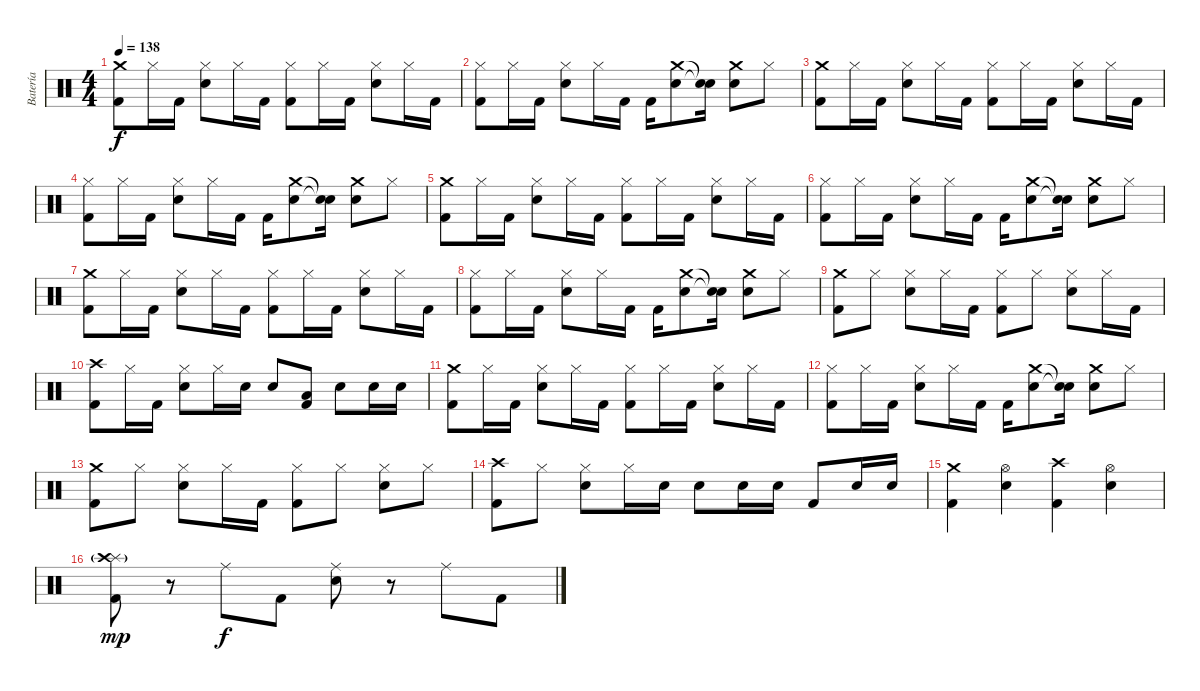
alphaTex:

\track ("Batería" "Batería") {instrument percussion}
\staff {score}
\articulation defaults
\ts (4 4)
\tempo 138
\clef neutral
\ks c
("Crash medium (hit)" "Kick (hit) 2").8{dy f} "Hi-Hat (closed)".16 "Kick (hit) 2".16 ("Hi-Hat (closed)" "Snare (hit) 2").8 "Hi-Hat (closed)".16 "Kick (hit) 2".16 ("Hi-Hat (closed)" "Kick (hit) 2").8 "Hi-Hat (closed)".16 "Kick (hit) 2".16 ("Hi-Hat (closed)" "Snare (hit) 2").8 "Hi-Hat (closed)".16 "Kick (hit) 2".16 |
("Hi-Hat (closed)" "Kick (hit) 2").8 "Hi-Hat (closed)".16 "Kick (hit) 2".16 ("Hi-Hat (closed)" "Snare (hit) 2").8 "Hi-Hat (closed)".16 "Kick (hit) 2".16 "Kick (hit) 2".16 ("Crash medium (hit)" "Snare (hit) 2").8 ("Snare (hit)"{t} "Snare (hit)"{t}).16 ("Crash medium (hit)" "Snare (hit) 2").8 "Hi-Hat (closed)".8 |
("Crash medium (hit)" "Kick (hit) 2").8 "Hi-Hat (closed)".16 "Kick (hit) 2".16 ("Hi-Hat (closed)" "Snare (hit) 2").8 "Hi-Hat (closed)".16 "Kick (hit) 2".16 ("Hi-Hat (closed)" "Kick (hit) 2").8 "Hi-Hat (closed)".16 "Kick (hit) 2".16 ("Hi-Hat (closed)" "Snare (hit) 2").8 "Hi-Hat (closed)".16 "Kick (hit) 2".16 |
("Hi-Hat (closed)" "Kick (hit) 2").8 "Hi-Hat (closed)".16 "Kick (hit) 2".16 ("Hi-Hat (closed)" "Snare (hit) 2").8 "Hi-Hat (closed)".16 "Kick (hit) 2".16 "Kick (hit) 2".16 ("Crash medium (hit)" "Snare (hit) 2").8 ("Snare (hit)"{t} "Snare (hit)"{t}).16 ("Crash medium (hit)" "Snare (hit) 2").8 "Hi-Hat (closed)".8 |
("Crash medium (hit)" "Kick (hit) 2").8 "Hi-Hat (closed)".16 "Kick (hit) 2".16 ("Hi-Hat (closed)" "Snare (hit) 2").8 "Hi-Hat (closed)".16 "Kick (hit) 2".16 ("Hi-Hat (closed)" "Kick (hit) 2").8 "Hi-Hat (closed)".16 "Kick (hit) 2".16 ("Hi-Hat (closed)" "Snare (hit) 2").8 "Hi-Hat (closed)".16 "Kick (hit) 2".16 |
("Hi-Hat (closed)" "Kick (hit) 2").8 "Hi-Hat (closed)".16 "Kick (hit) 2".16 ("Hi-Hat (closed)" "Snare (hit) 2").8 "Hi-Hat (closed)".16 "Kick (hit) 2".16 "Kick (hit) 2".16 ("Crash medium (hit)" "Snare (hit) 2").8 ("Snare (hit)"{t} "Snare (hit)"{t}).16 ("Crash medium (hit)" "Snare (hit) 2").8 "Hi-Hat (closed)".8 |
("Crash medium (hit)" "Kick (hit) 2").8 "Hi-Hat (closed)".16 "Kick (hit) 2".16 ("Hi-Hat (closed)" "Snare (hit) 2").8 "Hi-Hat (closed)".16 "Kick (hit) 2".16 ("Hi-Hat (closed)" "Kick (hit) 2").8 "Hi-Hat (closed)".16 "Kick (hit) 2".16 ("Hi-Hat (closed)" "Snare (hit) 2").8 "Hi-Hat (closed)".16 "Kick (hit) 2".16 |
("Hi-Hat (closed)" "Kick (hit) 2").8 "Hi-Hat (closed)".16 "Kick (hit) 2".16 ("Hi-Hat (closed)" "Snare (hit) 2").8 "Hi-Hat (closed)".16 "Kick (hit) 2".16 "Kick (hit) 2".16 ("Crash medium (hit)" "Snare (hit) 2").8 ("Snare (hit)"{t} "Snare (hit)"{t}).16 ("Crash medium (hit)" "Snare (hit) 2").8 "Hi-Hat (closed)".8 |
("Crash medium (hit)" "Kick (hit) 2").8 "Hi-Hat (closed)".8 ("Hi-Hat (closed)" "Snare (hit) 2").8 "Hi-Hat (closed)".16 "Kick (hit) 2".16 ("Hi-Hat (closed)" "Kick (hit) 2").8 "Hi-Hat (closed)".8 ("Hi-Hat (closed)" "Snare (hit) 2").8 "Hi-Hat (closed)".16 "Kick (hit) 2".16 |
("Crash high (hit)" "Kick (hit) 2").8 "Hi-Hat (closed)".16 "Kick (hit) 2".16 ("Hi-Hat (closed)" "Snare (hit) 2").8 "Hi-Hat (closed)".16 "Snare (hit) 2".16 "Snare (hit) 2".8 ("Low Floor Tom (hit)" "Kick (hit) 2").8 "Snare (hit) 2".8 "Snare (hit) 2".16 "Snare (hit) 2".16 |
("Crash medium (hit)" "Kick (hit) 2").8 "Hi-Hat (closed)".16 "Kick (hit) 2".16 ("Hi-Hat (closed)" "Snare (hit) 2").8 "Hi-Hat (closed)".16 "Kick (hit) 2".16 ("Hi-Hat (closed)" "Kick (hit) 2").8 "Hi-Hat (closed)".16 "Kick (hit) 2".16 ("Hi-Hat (closed)" "Snare (hit) 2").8 "Hi-Hat (closed)".16 "Kick (hit) 2".16 |
("Hi-Hat (closed)" "Kick (hit) 2").8 "Hi-Hat (closed)".16 "Kick (hit) 2".16 ("Hi-Hat (closed)" "Snare (hit) 2").8 "Hi-Hat (closed)".16 "Kick (hit) 2".16 "Kick (hit) 2".16 ("Crash medium (hit)" "Snare (hit) 2").8 ("Snare (hit)"{t} "Snare (hit)"{t}).16 ("Crash medium (hit)" "Snare (hit) 2").8 "Hi-Hat (closed)".8 |
("Crash medium (hit)" "Kick (hit) 2").8 "Hi-Hat (closed)".8 ("Hi-Hat (closed)" "Snare (hit) 2").8 "Hi-Hat (closed)".16 "Kick (hit) 2".16 ("Hi-Hat (closed)" "Kick (hit) 2").8 "Hi-Hat (closed)".8 ("Hi-Hat (closed)" "Snare (hit) 2").8 "Hi-Hat (closed)".8 |
("Crash high (hit)" "Kick (hit) 2").8 "Hi-Hat (closed)".8 ("Hi-Hat (closed)" "Snare (hit) 2").8 "Hi-Hat (closed)".16 "Snare (hit) 2".16 "Snare (hit) 2".8 "Snare (hit) 2".16 "Snare (hit) 2".16 "Kick (hit) 2".8 "Snare (hit) 2".16 "Snare (hit) 2".16 |
("Crash medium (hit)" "Kick (hit) 2").4 ("Hi-Hat (open)" "Snare (hit) 2").4 ("Crash high (hit)" "Kick (hit) 2").4 ("Hi-Hat (open)" "Snare (hit) 2").4 |
("Splash (hit)" "Crash high (hit)"{g} "Kick (hit) 2").8{dy mp} r.8 "Ride (middle)".8{dy f} "Kick (hit) 2".8 ("Ride (middle)" "Snare (hit) 2").8 r.8 "Ride (middle)".8 "Kick (hit) 2".8
